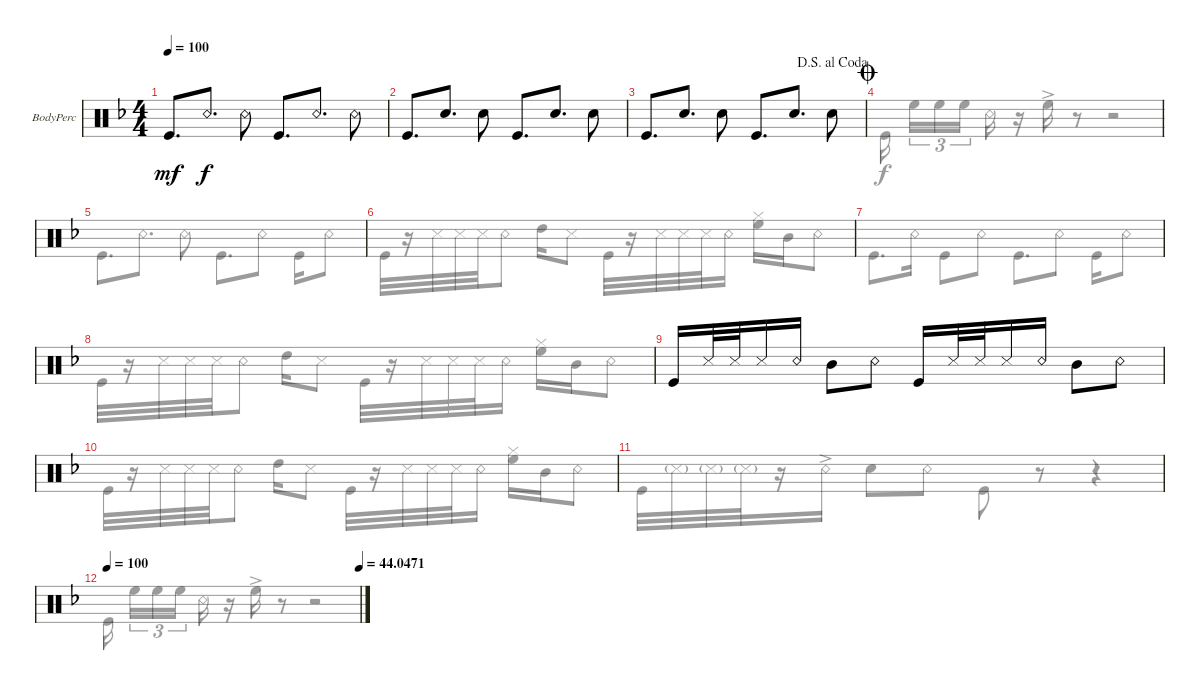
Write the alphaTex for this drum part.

\defaultSystemsLayout 4
\firstSystemTrackNameOrientation horizontal
\otherSystemsTrackNameOrientation horizontal
\track ("Percussion" "BodyPerc") {instrument percussion}
\staff {score}
\articulation defaults
\voice
\ts (4 4)
\scale
0.575496
\tempo 100
\accidentals auto
\clef neutral
\ottava regular
\simile none
\ks dminor "Kick (hit)".8{d dy mf} "Snare (rim shot)".8{d dy f} "Snare (rim shot)".8 "Kick (hit)".8{d} "Snare (rim shot)".8{d} "Snare (rim shot)".8
|
\scale
0.450815 "Kick (hit)".8{d} "Snare (hit) 2".8{d} "Snare (hit) 2".8 "Kick (hit)".8{d} "Snare (hit) 2".8{d} "Snare (hit) 2".8 |
\jump dalsegnoalcoda "Kick (hit)".8{d} "Snare (hit) 2".8{d} "Snare (hit) 2".8 "Kick (hit)".8{d} "Snare (hit) 2".8{d} "Snare (hit) 2".8
|
\jump coda
|
|
|
\scale
0.437479 |
\scale
0.562852 |
"Kick (hit)".16 "Snare (side stick) 3".32 "Snare (side stick) 3".32 "Snare (side stick) 3".16 "Snare (rim shot)".16 "Mid Tom (hit)".8 "Snare (rim shot)".8 "Kick (hit)".16 "Snare (side stick) 3".32 "Snare (side stick) 3".32 "Snare (side stick) 3".16 "Snare (rim shot)".16 "Mid Tom (hit)".8 "Snare (rim shot)".8 |
|
\scale
0.651219 |
\scale
0.302701
\tempo 100
\tempo (44.0471 1)
|
\scale
0.248925
\voice
\clef neutral
\ottava regular
\simile none
\ks dminor
|
|
|
"Kick (hit)".16 "High Floor Tom (hit)".16{tu (3 2)} "High Floor Tom (hit)".16{tu (3 2)} "High Floor Tom (hit)".16{tu (3 2)} "Snare (rim shot)".16 r.16 "High Floor Tom (hit)"{ac}.16 r.8 r.2 |
"Kick (hit)".8{d} "Snare (rim shot)".8{d} "Snare (rim shot)".8 "Kick (hit)".8{d} "Snare (rim shot)".8 "Kick (hit)".16 "Snare (rim shot)".8 |
"Kick (hit)".32 r.16 "Snare (side stick) 3".32 "Snare (side stick) 3".32 "Snare (side stick) 3".32 "Snare (rim shot)".8 "High Tom (hit)".16 "Snare (side stick) 3".8 "Kick (hit)".32 r.16 "Snare (side stick) 3".32 "Snare (side stick) 3".32 "Snare (side stick) 3".32 "Snare (rim shot)".16 ("High Floor Tom (hit)" "Hi-Hat (closed)").16 "Mid Tom (hit)".16 "Snare (rim shot)".8 |
"Kick (hit)".8{d} "Snare (rim shot)".16 "Kick (hit)".8 "Snare (rim shot)".8 "Kick (hit)".8{d} "Snare (rim shot)".8 "Kick (hit)".16 "Snare (rim shot)".8 |
"Kick (hit)".32 r.16 "Snare (side stick) 3".32 "Snare (side stick) 3".32 "Snare (side stick) 3".32 "Snare (rim shot)".8 "High Tom (hit)".16 "Snare (side stick) 3".8 "Kick (hit)".32 r.16 "Snare (side stick) 3".32 "Snare (side stick) 3".32 "Snare (side stick) 3".32 "Snare (rim shot)".16 ("High Floor Tom (hit)" "Hi-Hat (closed)").16 "Mid Tom (hit)".16 "Snare (rim shot)".8 |
|
"Kick (hit)".32 r.16 "Snare (side stick) 3".32 "Snare (side stick) 3".32 "Snare (side stick) 3".32 "Snare (rim shot)".8 "High Tom (hit)".16 "Snare (side stick) 3".8 "Kick (hit)".32 r.16 "Snare (side stick) 3".32 "Snare (side stick) 3".32 "Snare (side stick) 3".32 "Snare (rim shot)".16 ("High Floor Tom (hit)" "Hi-Hat (closed)").16 "Mid Tom (hit)".16 "Snare (rim shot)".8 |
"Kick (hit)".32 "Snare (side stick) 3"{g}.32 "Snare (side stick) 3"{g}.32 "Snare (side stick) 3"{g}.32 r.16 "Snare (rim shot)"{ac}.16 "Snare (hit) 2".8 "Snare (rim shot)".8 "Kick (hit)".8 r.8 r.4 |
"Kick (hit)".16 "High Floor Tom (hit)".16{tu (3 2)} "High Floor Tom (hit)".16{tu (3 2)} "High Floor Tom (hit)".16{tu (3 2)} "Snare (rim shot)".16 r.16 "High Floor Tom (hit)"{ac}.16 r.8 r.2 |
